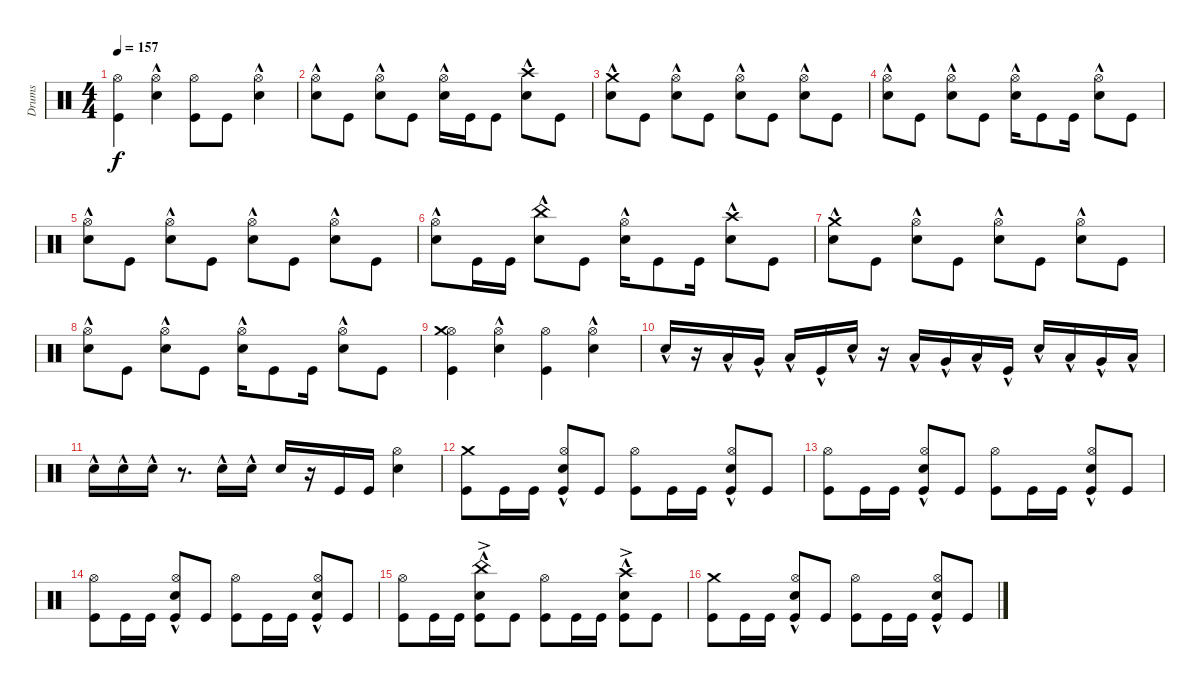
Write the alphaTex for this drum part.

\track ("Drums" "Drums") {solo instrument percussion}
\staff {score}
\articulation defaults
\ts (4 4)
\tempo 157
\clef neutral
\ks c
("Kick (hit)" "Hi-Hat (open)").4{dy f} ("Snare (hit) 2"{hac} "Hi-Hat (open)").4 ("Kick (hit)" "Hi-Hat (open)").8 "Kick (hit)".8 ("Snare (hit) 2"{hac} "Hi-Hat (open)").4 |
("Snare (hit) 2"{hac} "Hi-Hat (open)").8 "Kick (hit)".8 ("Snare (hit) 2"{hac} "Hi-Hat (open)").8 "Kick (hit)".8 ("Snare (hit) 2"{hac} "Hi-Hat (open)").16 "Kick (hit)".16 "Kick (hit)".8 ("Snare (hit) 2"{hac} "Crash high (hit)"{hac}).8 "Kick (hit)".8 |
("Snare (hit) 2"{hac} "Crash medium (hit)").8 "Kick (hit)".8 ("Snare (hit) 2"{hac} "Hi-Hat (open)").8 "Kick (hit)".8 ("Snare (hit) 2"{hac} "Hi-Hat (open)").8 "Kick (hit)".8 ("Snare (hit) 2"{hac} "Hi-Hat (open)").8 "Kick (hit)".8 |
("Snare (hit) 2"{hac} "Hi-Hat (open)").8 "Kick (hit)".8 ("Snare (hit) 2"{hac} "Hi-Hat (open)").8 "Kick (hit)".8 ("Snare (hit) 2"{hac} "Hi-Hat (open)").16 "Kick (hit)".8 "Kick (hit)".16 ("Snare (hit) 2"{hac} "Hi-Hat (open)").8 "Kick (hit)".8 |
("Snare (hit) 2"{hac} "Hi-Hat (open)").8 "Kick (hit)".8 ("Snare (hit) 2"{hac} "Hi-Hat (open)").8 "Kick (hit)".8 ("Snare (hit) 2"{hac} "Hi-Hat (open)").8 "Kick (hit)".8 ("Snare (hit) 2"{hac} "Hi-Hat (open)").8 "Kick (hit)".8 |
("Snare (hit) 2"{hac} "Hi-Hat (open)").8 "Kick (hit)".16 "Kick (hit)".16 ("Snare (hit) 2"{hac} "China (hit)"{hac}).8 "Kick (hit)".8 ("Snare (hit) 2"{hac} "Hi-Hat (open)").16 "Kick (hit)".8 "Kick (hit)".16 ("Snare (hit) 2"{hac} "Crash high (hit)"{hac}).8 "Kick (hit)".8 |
("Snare (hit) 2"{hac} "Crash medium (hit)").8 "Kick (hit)".8 ("Snare (hit) 2"{hac} "Hi-Hat (open)").8 "Kick (hit)".8 ("Snare (hit) 2"{hac} "Hi-Hat (open)").8 "Kick (hit)".8 ("Snare (hit) 2"{hac} "Hi-Hat (open)").8 "Kick (hit)".8 |
("Snare (hit) 2"{hac} "Hi-Hat (open)").8 "Kick (hit)".8 ("Snare (hit) 2"{hac} "Hi-Hat (open)").8 "Kick (hit)".8 ("Snare (hit) 2"{hac} "Hi-Hat (open)").16 "Kick (hit)".8 "Kick (hit)".16 ("Snare (hit) 2"{hac} "Hi-Hat (open)").8 "Kick (hit)".8 |
("Kick (hit)" "Hi-Hat (open)" "Crash medium (hit)").4 ("Snare (hit) 2"{hac} "Hi-Hat (open)").4 ("Kick (hit)" "Hi-Hat (open)").4 ("Snare (hit) 2"{hac} "Hi-Hat (open)").4 |
"Snare (hit) 2"{hac}.16 r.16 "Low Tom (hit)"{hac}.16 "Very Low Tom (hit)"{hac}.16 "Low Floor Tom (hit)"{hac}.16 "Kick (hit)"{hac}.16 "Snare (hit) 2"{hac}.16 r.16 "Low Tom (hit)"{hac}.16 "Very Low Tom (hit)"{hac}.16 "Low Floor Tom (hit)"{hac}.16 "Kick (hit)"{hac}.16 "Snare (hit) 2"{hac}.16 "Low Tom (hit)"{hac}.16 "Very Low Tom (hit)"{hac}.16 "Low Floor Tom (hit)"{hac}.16 |
"Snare (hit) 2"{hac}.16 "Snare (hit) 2"{hac}.16 "Snare (hit) 2"{hac}.16 r.8{d} "Snare (hit) 2"{hac}.16 "Snare (hit) 2"{hac}.16 "Snare (hit) 2".16 r.16 "Kick (hit)".16 "Kick (hit)".16 ("Snare (hit) 2" "Hi-Hat (open)").4 |
("Crash medium (hit)" "Kick (hit)").8 "Kick (hit)".16 "Kick (hit)".16 ("Snare (hit) 2"{hac} "Hi-Hat (open)" "Kick (hit)").8 "Kick (hit)".8 ("Kick (hit)" "Hi-Hat (open)").8 "Kick (hit)".16 "Kick (hit)".16 ("Snare (hit) 2"{hac} "Hi-Hat (open)" "Kick (hit)").8 "Kick (hit)".8 |
("Kick (hit)" "Hi-Hat (open)").8 "Kick (hit)".16 "Kick (hit)".16 ("Snare (hit) 2"{hac} "Hi-Hat (open)" "Kick (hit)").8 "Kick (hit)".8 ("Kick (hit)" "Hi-Hat (open)").8 "Kick (hit)".16 "Kick (hit)".16 ("Snare (hit) 2"{hac} "Hi-Hat (open)" "Kick (hit)").8 "Kick (hit)".8 |
("Kick (hit)" "Hi-Hat (open)").8 "Kick (hit)".16 "Kick (hit)".16 ("Snare (hit) 2"{hac} "Hi-Hat (open)" "Kick (hit)").8 "Kick (hit)".8 ("Kick (hit)" "Hi-Hat (open)").8 "Kick (hit)".16 "Kick (hit)".16 ("Snare (hit) 2"{hac} "Hi-Hat (open)" "Kick (hit)").8 "Kick (hit)".8 |
("Kick (hit)" "Hi-Hat (open)").8 "Kick (hit)".16 "Kick (hit)".16 ("Snare (hit) 2"{hac} "China (hit)"{ac} "Kick (hit)").8 "Kick (hit)".8 ("Kick (hit)" "Hi-Hat (open)").8 "Kick (hit)".16 "Kick (hit)".16 ("Snare (hit) 2"{hac} "Crash high (hit)"{ac} "Kick (hit)").8 "Kick (hit)".8 |
("Crash medium (hit)" "Kick (hit)").8 "Kick (hit)".16 "Kick (hit)".16 ("Snare (hit) 2"{hac} "Hi-Hat (open)" "Kick (hit)").8 "Kick (hit)".8 ("Kick (hit)" "Hi-Hat (open)").8 "Kick (hit)".16 "Kick (hit)".16 ("Snare (hit) 2"{hac} "Hi-Hat (open)" "Kick (hit)").8 "Kick (hit)".8
